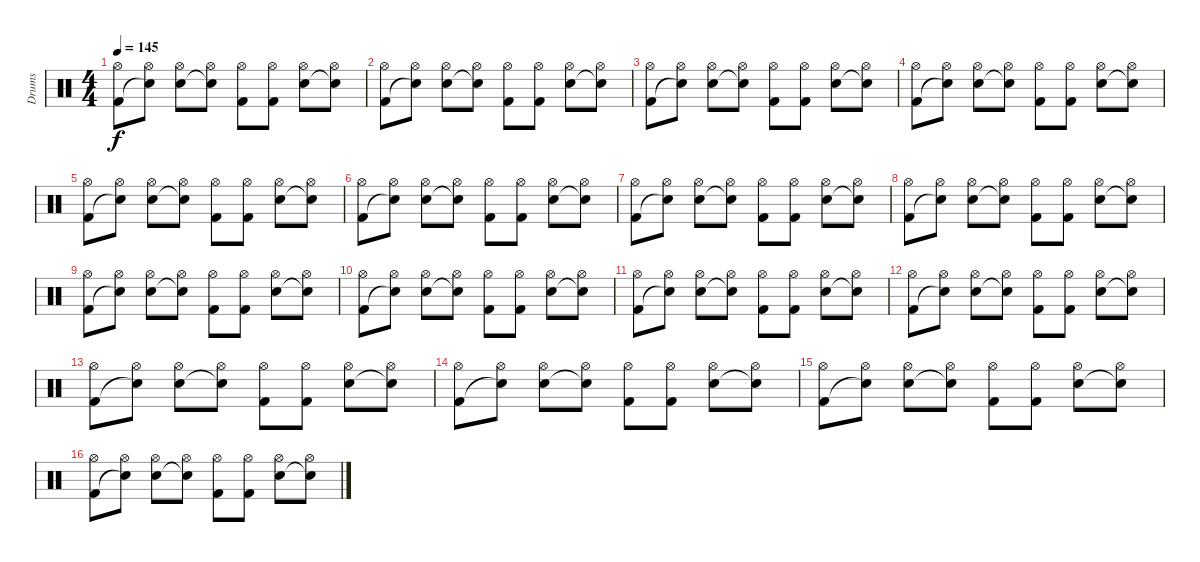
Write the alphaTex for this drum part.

\track ("Drums" "Drums") {instrument percussion}
\staff {score}
\articulation defaults
\ts (4 4)
\tempo 145
\clef neutral
\ks c
("Hi-Hat (open)" "Kick (hit) 2").8{dy f} ("Hi-Hat (open)" "Snare (hit)"{t}).8 ("Hi-Hat (open)" "Electric Snare (hit)").8 ("Hi-Hat (open)" "Snare (hit)"{t}).8 ("Hi-Hat (open)" "Kick (hit) 2").8 ("Hi-Hat (open)" "Kick (hit) 2").8 ("Hi-Hat (open)" "Electric Snare (hit)").8 ("Hi-Hat (open)" "Snare (hit)"{t}).8 |
("Hi-Hat (open)" "Kick (hit) 2").8 ("Hi-Hat (open)" "Snare (hit)"{t}).8 ("Hi-Hat (open)" "Electric Snare (hit)").8 ("Hi-Hat (open)" "Snare (hit)"{t}).8 ("Hi-Hat (open)" "Kick (hit) 2").8 ("Hi-Hat (open)" "Kick (hit) 2").8 ("Hi-Hat (open)" "Electric Snare (hit)").8 ("Hi-Hat (open)" "Snare (hit)"{t}).8 |
("Hi-Hat (open)" "Kick (hit) 2").8 ("Hi-Hat (open)" "Snare (hit)"{t}).8 ("Hi-Hat (open)" "Electric Snare (hit)").8 ("Hi-Hat (open)" "Snare (hit)"{t}).8 ("Hi-Hat (open)" "Kick (hit) 2").8 ("Hi-Hat (open)" "Kick (hit) 2").8 ("Hi-Hat (open)" "Electric Snare (hit)").8 ("Hi-Hat (open)" "Snare (hit)"{t}).8 |
("Hi-Hat (open)" "Kick (hit) 2").8 ("Hi-Hat (open)" "Snare (hit)"{t}).8 ("Hi-Hat (open)" "Electric Snare (hit)").8 ("Hi-Hat (open)" "Snare (hit)"{t}).8 ("Hi-Hat (open)" "Kick (hit) 2").8 ("Hi-Hat (open)" "Kick (hit) 2").8 ("Hi-Hat (open)" "Electric Snare (hit)").8 ("Hi-Hat (open)" "Snare (hit)"{t}).8 |
("Hi-Hat (open)" "Kick (hit) 2").8 ("Hi-Hat (open)" "Snare (hit)"{t}).8 ("Hi-Hat (open)" "Electric Snare (hit)").8 ("Hi-Hat (open)" "Snare (hit)"{t}).8 ("Hi-Hat (open)" "Kick (hit) 2").8 ("Hi-Hat (open)" "Kick (hit) 2").8 ("Hi-Hat (open)" "Electric Snare (hit)").8 ("Hi-Hat (open)" "Snare (hit)"{t}).8 |
("Hi-Hat (open)" "Kick (hit) 2").8 ("Hi-Hat (open)" "Snare (hit)"{t}).8 ("Hi-Hat (open)" "Electric Snare (hit)").8 ("Hi-Hat (open)" "Snare (hit)"{t}).8 ("Hi-Hat (open)" "Kick (hit) 2").8 ("Hi-Hat (open)" "Kick (hit) 2").8 ("Hi-Hat (open)" "Electric Snare (hit)").8 ("Hi-Hat (open)" "Snare (hit)"{t}).8 |
("Hi-Hat (open)" "Kick (hit) 2").8 ("Hi-Hat (open)" "Snare (hit)"{t}).8 ("Hi-Hat (open)" "Electric Snare (hit)").8 ("Hi-Hat (open)" "Snare (hit)"{t}).8 ("Hi-Hat (open)" "Kick (hit) 2").8 ("Hi-Hat (open)" "Kick (hit) 2").8 ("Hi-Hat (open)" "Electric Snare (hit)").8 ("Hi-Hat (open)" "Snare (hit)"{t}).8 |
("Hi-Hat (open)" "Kick (hit) 2").8 ("Hi-Hat (open)" "Snare (hit)"{t}).8 ("Hi-Hat (open)" "Electric Snare (hit)").8 ("Hi-Hat (open)" "Snare (hit)"{t}).8 ("Hi-Hat (open)" "Kick (hit) 2").8 ("Hi-Hat (open)" "Kick (hit) 2").8 ("Hi-Hat (open)" "Electric Snare (hit)").8 ("Hi-Hat (open)" "Snare (hit)"{t}).8 |
("Hi-Hat (open)" "Kick (hit) 2").8 ("Hi-Hat (open)" "Snare (hit)"{t}).8 ("Hi-Hat (open)" "Electric Snare (hit)").8 ("Hi-Hat (open)" "Snare (hit)"{t}).8 ("Hi-Hat (open)" "Kick (hit) 2").8 ("Hi-Hat (open)" "Kick (hit) 2").8 ("Hi-Hat (open)" "Electric Snare (hit)").8 ("Hi-Hat (open)" "Snare (hit)"{t}).8 |
("Hi-Hat (open)" "Kick (hit) 2").8 ("Hi-Hat (open)" "Snare (hit)"{t}).8 ("Hi-Hat (open)" "Electric Snare (hit)").8 ("Hi-Hat (open)" "Snare (hit)"{t}).8 ("Hi-Hat (open)" "Kick (hit) 2").8 ("Hi-Hat (open)" "Kick (hit) 2").8 ("Hi-Hat (open)" "Electric Snare (hit)").8 ("Hi-Hat (open)" "Snare (hit)"{t}).8 |
("Hi-Hat (open)" "Kick (hit) 2").8 ("Hi-Hat (open)" "Snare (hit)"{t}).8 ("Hi-Hat (open)" "Electric Snare (hit)").8 ("Hi-Hat (open)" "Snare (hit)"{t}).8 ("Hi-Hat (open)" "Kick (hit) 2").8 ("Hi-Hat (open)" "Kick (hit) 2").8 ("Hi-Hat (open)" "Electric Snare (hit)").8 ("Hi-Hat (open)" "Snare (hit)"{t}).8 |
("Hi-Hat (open)" "Kick (hit) 2").8 ("Hi-Hat (open)" "Snare (hit)"{t}).8 ("Hi-Hat (open)" "Electric Snare (hit)").8 ("Hi-Hat (open)" "Snare (hit)"{t}).8 ("Hi-Hat (open)" "Kick (hit) 2").8 ("Hi-Hat (open)" "Kick (hit) 2").8 ("Hi-Hat (open)" "Electric Snare (hit)").8 ("Hi-Hat (open)" "Snare (hit)"{t}).8 |
("Hi-Hat (open)" "Kick (hit) 2").8 ("Hi-Hat (open)" "Snare (hit)"{t}).8 ("Hi-Hat (open)" "Electric Snare (hit)").8 ("Hi-Hat (open)" "Snare (hit)"{t}).8 ("Hi-Hat (open)" "Kick (hit) 2").8 ("Hi-Hat (open)" "Kick (hit) 2").8 ("Hi-Hat (open)" "Electric Snare (hit)").8 ("Hi-Hat (open)" "Snare (hit)"{t}).8 |
("Hi-Hat (open)" "Kick (hit) 2").8 ("Hi-Hat (open)" "Snare (hit)"{t}).8 ("Hi-Hat (open)" "Electric Snare (hit)").8 ("Hi-Hat (open)" "Snare (hit)"{t}).8 ("Hi-Hat (open)" "Kick (hit) 2").8 ("Hi-Hat (open)" "Kick (hit) 2").8 ("Hi-Hat (open)" "Electric Snare (hit)").8 ("Hi-Hat (open)" "Snare (hit)"{t}).8 |
("Hi-Hat (open)" "Kick (hit) 2").8 ("Hi-Hat (open)" "Snare (hit)"{t}).8 ("Hi-Hat (open)" "Electric Snare (hit)").8 ("Hi-Hat (open)" "Snare (hit)"{t}).8 ("Hi-Hat (open)" "Kick (hit) 2").8 ("Hi-Hat (open)" "Kick (hit) 2").8 ("Hi-Hat (open)" "Electric Snare (hit)").8 ("Hi-Hat (open)" "Snare (hit)"{t}).8 |
("Hi-Hat (open)" "Kick (hit) 2").8 ("Hi-Hat (open)" "Snare (hit)"{t}).8 ("Hi-Hat (open)" "Electric Snare (hit)").8 ("Hi-Hat (open)" "Snare (hit)"{t}).8 ("Hi-Hat (open)" "Kick (hit) 2").8 ("Hi-Hat (open)" "Kick (hit) 2").8 ("Hi-Hat (open)" "Electric Snare (hit)").8 ("Hi-Hat (open)" "Snare (hit)"{t}).8
